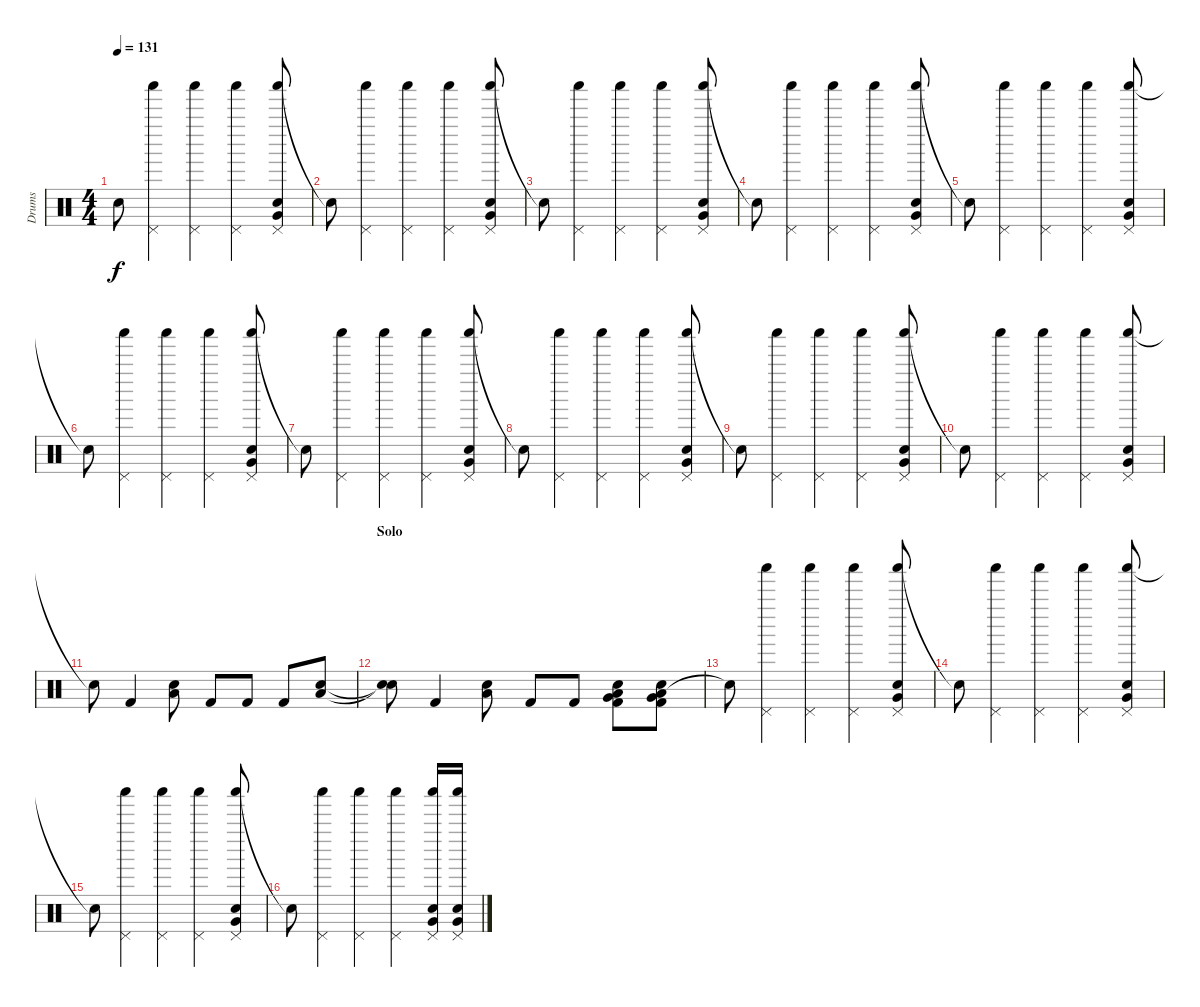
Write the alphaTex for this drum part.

\track ("Drums" "Drums") {instrument percussion}
\staff {score}
\articulation defaults
\ts (4 4)
\tempo 131
\clef neutral
\ks c "Snare (hit) 2"{t}.8{dy f}
("Shaker (hit)" "Pedal Hi-Hat (hit)").4 ("Shaker (hit)" "Pedal Hi-Hat (hit)").4 ("Shaker (hit)" "Pedal Hi-Hat (hit)").4 ("Shaker (hit)" "Pedal Hi-Hat (hit)" "Snare (hit) 2" "Very Low Tom (hit)").8 |
"Snare (hit) 2"{t}.8 ("Shaker (hit)" "Pedal Hi-Hat (hit)").4 ("Shaker (hit)" "Pedal Hi-Hat (hit)").4 ("Shaker (hit)" "Pedal Hi-Hat (hit)").4 ("Shaker (hit)" "Pedal Hi-Hat (hit)" "Snare (hit) 2" "Very Low Tom (hit)").8 |
"Snare (hit) 2"{t}.8 ("Shaker (hit)" "Pedal Hi-Hat (hit)").4 ("Shaker (hit)" "Pedal Hi-Hat (hit)").4 ("Shaker (hit)" "Pedal Hi-Hat (hit)").4 ("Shaker (hit)" "Pedal Hi-Hat (hit)" "Snare (hit) 2" "Very Low Tom (hit)").8 |
"Snare (hit) 2"{t}.8 ("Shaker (hit)" "Pedal Hi-Hat (hit)").4 ("Shaker (hit)" "Pedal Hi-Hat (hit)").4 ("Shaker (hit)" "Pedal Hi-Hat (hit)").4 ("Shaker (hit)" "Pedal Hi-Hat (hit)" "Snare (hit) 2" "Very Low Tom (hit)").8 |
"Snare (hit) 2"{t}.8 ("Shaker (hit)" "Pedal Hi-Hat (hit)").4 ("Shaker (hit)" "Pedal Hi-Hat (hit)").4 ("Shaker (hit)" "Pedal Hi-Hat (hit)").4 ("Shaker (hit)" "Pedal Hi-Hat (hit)" "Snare (hit) 2" "Very Low Tom (hit)").8 |
"Snare (hit) 2"{t}.8 ("Shaker (hit)" "Pedal Hi-Hat (hit)").4 ("Shaker (hit)" "Pedal Hi-Hat (hit)").4 ("Shaker (hit)" "Pedal Hi-Hat (hit)").4 ("Shaker (hit)" "Pedal Hi-Hat (hit)" "Snare (hit) 2" "Very Low Tom (hit)").8 |
"Snare (hit) 2"{t}.8 ("Shaker (hit)" "Pedal Hi-Hat (hit)").4 ("Shaker (hit)" "Pedal Hi-Hat (hit)").4 ("Shaker (hit)" "Pedal Hi-Hat (hit)").4 ("Shaker (hit)" "Pedal Hi-Hat (hit)" "Snare (hit) 2" "Very Low Tom (hit)").8 |
"Snare (hit) 2"{t}.8 ("Shaker (hit)" "Pedal Hi-Hat (hit)").4 ("Shaker (hit)" "Pedal Hi-Hat (hit)").4 ("Shaker (hit)" "Pedal Hi-Hat (hit)").4 ("Shaker (hit)" "Pedal Hi-Hat (hit)" "Snare (hit) 2" "Very Low Tom (hit)").8 |
"Snare (hit) 2"{t}.8 ("Shaker (hit)" "Pedal Hi-Hat (hit)").4 ("Shaker (hit)" "Pedal Hi-Hat (hit)").4 ("Shaker (hit)" "Pedal Hi-Hat (hit)").4 ("Shaker (hit)" "Pedal Hi-Hat (hit)" "Snare (hit) 2" "Very Low Tom (hit)").8 |
"Snare (hit) 2"{t}.8 ("Shaker (hit)" "Pedal Hi-Hat (hit)").4 ("Shaker (hit)" "Pedal Hi-Hat (hit)").4 ("Shaker (hit)" "Pedal Hi-Hat (hit)").4 ("Shaker (hit)" "Pedal Hi-Hat (hit)" "Snare (hit) 2" "Very Low Tom (hit)").8 |
"Snare (hit) 2"{t}.8{volume 16} "Kick (hit) 2".4 ("Low Tom (hit)" "Snare (hit) 2").8 "Kick (hit) 2".8 "Kick (hit) 2".8 "Kick (hit) 2".8 ("Low Tom (hit)" "Snare (hit) 2").8 |
\section ("" "Solo")
("Snare (hit)"{t} "Snare (hit)"{t}).8 "Kick (hit) 2".4 ("Low Tom (hit)" "Snare (hit) 2").8 "Kick (hit) 2".8 "Kick (hit) 2".8 ("Low Tom (hit)" "Kick (hit) 2" "Very Low Tom (hit)" "Snare (hit) 2").8 ("Low Tom (hit)" "Kick (hit) 2" "Very Low Tom (hit)" "Snare (hit) 2").8 |
"Snare (hit) 2"{t}.8 ("Shaker (hit)" "Pedal Hi-Hat (hit)").4 ("Shaker (hit)" "Pedal Hi-Hat (hit)").4 ("Shaker (hit)" "Pedal Hi-Hat (hit)").4 ("Shaker (hit)" "Pedal Hi-Hat (hit)" "Snare (hit) 2" "Very Low Tom (hit)").8 |
"Snare (hit) 2"{t}.8 ("Shaker (hit)" "Pedal Hi-Hat (hit)").4 ("Shaker (hit)" "Pedal Hi-Hat (hit)").4 ("Shaker (hit)" "Pedal Hi-Hat (hit)").4 ("Shaker (hit)" "Pedal Hi-Hat (hit)" "Snare (hit) 2" "Very Low Tom (hit)").8 |
"Snare (hit) 2"{t}.8 ("Shaker (hit)" "Pedal Hi-Hat (hit)").4 ("Shaker (hit)" "Pedal Hi-Hat (hit)").4 ("Shaker (hit)" "Pedal Hi-Hat (hit)").4 ("Shaker (hit)" "Pedal Hi-Hat (hit)" "Snare (hit) 2" "Very Low Tom (hit)").8 |
"Snare (hit) 2"{t}.8 ("Shaker (hit)" "Pedal Hi-Hat (hit)").4 ("Shaker (hit)" "Pedal Hi-Hat (hit)").4 ("Shaker (hit)" "Pedal Hi-Hat (hit)").4 ("Shaker (hit)" "Pedal Hi-Hat (hit)" "Snare (hit) 2" "Very Low Tom (hit)").16 ("Shaker (hit)" "Pedal Hi-Hat (hit)" "Snare (hit) 2" "Very Low Tom (hit)").16
